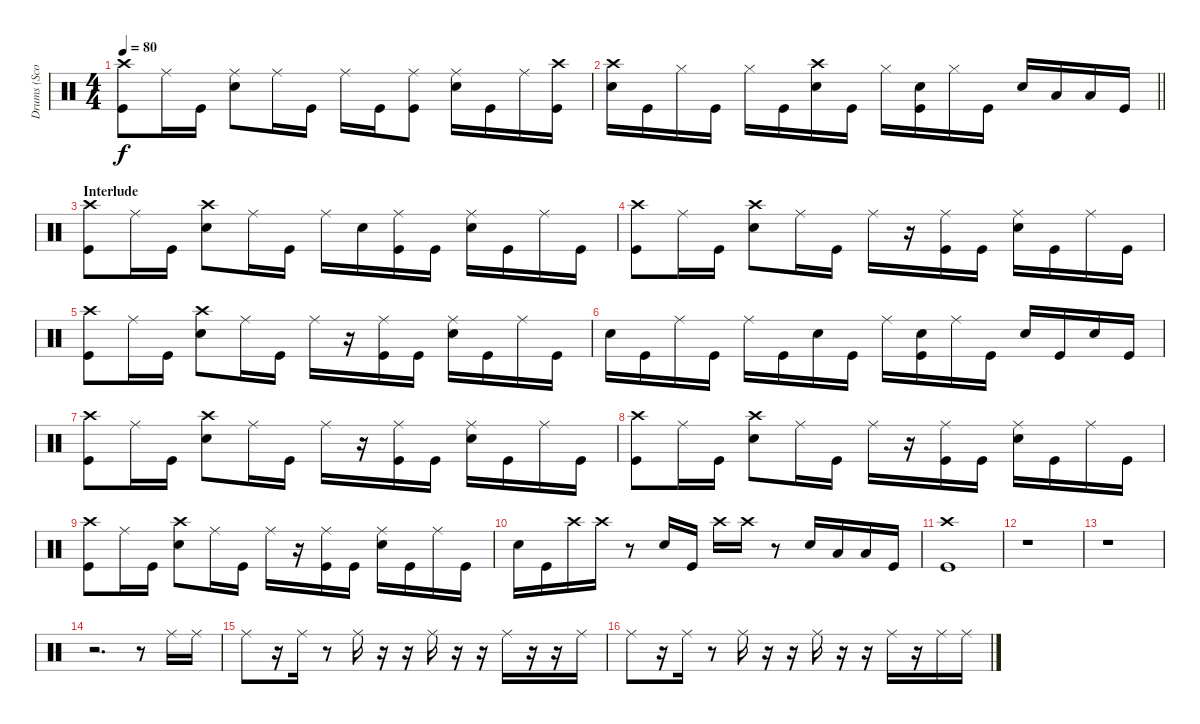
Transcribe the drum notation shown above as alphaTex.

\track ("Drums (Scott Phillips)" "Drums (Sco") {instrument percussion}
\staff {score}
\articulation defaults
\ts (4 4)
\tempo 80
\clef neutral
\ks c
("Crash high (hit)" "Kick (hit)").8{dy f} "Ride (middle)".16 "Kick (hit)".16 ("Ride (middle)" "Snare (hit) 2").8 "Ride (middle)".16 "Kick (hit)".16 "Ride (middle)".16 "Kick (hit)".16 ("Ride (middle)" "Kick (hit)").8 ("Ride (middle)" "Snare (hit) 2").16 "Kick (hit)".16 "Ride (middle)".16 ("Crash high (hit)" "Kick (hit)").16 |
\barLineRight lightlight
("Crash high (hit)" "Snare (hit) 2").16 "Kick (hit)".16 "Hi-Hat (closed)".16 "Kick (hit)".16 "Hi-Hat (closed)".16 "Kick (hit)".16 ("Crash high (hit)" "Snare (hit) 2").16 "Kick (hit)".16 "Hi-Hat (closed)".16 ("Snare (hit) 2" "Kick (hit)").16 "Hi-Hat (closed)".16 "Kick (hit)".16 "Snare (hit) 2".16 "Low Tom (hit)".16 "Low Tom (hit)".16 "Kick (hit)".16 |
\section ("" "Interlude")
("Crash high (hit)" "Kick (hit)").8 "Ride (middle)".16 "Kick (hit)".16 ("Crash high (hit)" "Snare (hit) 2").8 "Ride (middle)".16 "Kick (hit)".16 "Ride (middle)".16 "Snare (hit) 2".16 ("Ride (middle)" "Kick (hit)").16 "Kick (hit)".16 ("Ride (middle)" "Snare (hit) 2").16 "Kick (hit)".16 "Ride (middle)".16 "Kick (hit)".16 |
("Crash high (hit)" "Kick (hit)").8 "Ride (middle)".16 "Kick (hit)".16 ("Crash high (hit)" "Snare (hit) 2").8 "Ride (middle)".16 "Kick (hit)".16 "Ride (middle)".16 r.16 ("Ride (middle)" "Kick (hit)").16 "Kick (hit)".16 ("Ride (middle)" "Snare (hit) 2").16 "Kick (hit)".16 "Ride (middle)".16 "Kick (hit)".16 |
("Crash high (hit)" "Kick (hit)").8 "Ride (middle)".16 "Kick (hit)".16 ("Crash high (hit)" "Snare (hit) 2").8 "Ride (middle)".16 "Kick (hit)".16 "Ride (middle)".16 r.16 ("Ride (middle)" "Kick (hit)").16 "Kick (hit)".16 ("Ride (middle)" "Snare (hit) 2").16 "Kick (hit)".16 "Ride (middle)".16 "Kick (hit)".16 |
"Snare (hit) 2".16 "Kick (hit)".16 "Ride (middle)".16 "Kick (hit)".16 "Ride (middle)".16 "Kick (hit)".16 "Snare (hit) 2".16 "Kick (hit)".16 "Ride (middle)".16 ("Snare (hit) 2" "Kick (hit)").16 "Ride (middle)".16 "Kick (hit)".16 "Snare (hit) 2".16 "Kick (hit)".16 "Snare (hit) 2".16 "Kick (hit)".16 |
("Crash high (hit)" "Kick (hit)").8 "Ride (middle)".16 "Kick (hit)".16 ("Crash high (hit)" "Snare (hit) 2").8 "Ride (middle)".16 "Kick (hit)".16 "Ride (middle)".16 r.16 ("Ride (middle)" "Kick (hit)").16 "Kick (hit)".16 ("Ride (middle)" "Snare (hit) 2").16 "Kick (hit)".16 "Ride (middle)".16 "Kick (hit)".16 |
("Crash high (hit)" "Kick (hit)").8 "Ride (middle)".16 "Kick (hit)".16 ("Crash high (hit)" "Snare (hit) 2").8 "Ride (middle)".16 "Kick (hit)".16 "Ride (middle)".16 r.16 ("Ride (middle)" "Kick (hit)").16 "Kick (hit)".16 ("Ride (middle)" "Snare (hit) 2").16 "Kick (hit)".16 "Ride (middle)".16 "Kick (hit)".16 |
("Crash high (hit)" "Kick (hit)").8 "Ride (middle)".16 "Kick (hit)".16 ("Crash high (hit)" "Snare (hit) 2").8 "Ride (middle)".16 "Kick (hit)".16 "Ride (middle)".16 r.16 ("Ride (middle)" "Kick (hit)").16 "Kick (hit)".16 ("Ride (middle)" "Snare (hit) 2").16 "Kick (hit)".16 "Ride (middle)".16 "Kick (hit)".16 |
"Snare (hit) 2".16 "Kick (hit)".16 "Crash high (hit)".16 "Crash high (hit)".16 r.8 "Snare (hit) 2".16 "Kick (hit)".16 "Crash high (hit)".16 "Crash high (hit)".16 r.8 "Snare (hit) 2".16 "Low Tom (hit)".16 "Low Tom (hit)".16 "Kick (hit)".16 |
("Crash high (hit)" "Kick (hit)").1 |
r.1 |
r.1 |
r.2{d} r.8 "Ride (middle)".16 "Ride (middle)".16 |
"Ride (middle)".8 r.16 "Ride (middle)".16 r.8 "Ride (middle)".16 r.16 r.16 "Ride (middle)".16 r.16 r.16 "Ride (middle)".16 r.16 r.16 "Ride (middle)".16 |
"Ride (middle)".8 r.16 "Ride (middle)".16 r.8 "Ride (middle)".16 r.16 r.16 "Ride (middle)".16 r.16 r.16 "Ride (middle)".16 r.16 "Ride (middle)".16 "Ride (middle)".16
